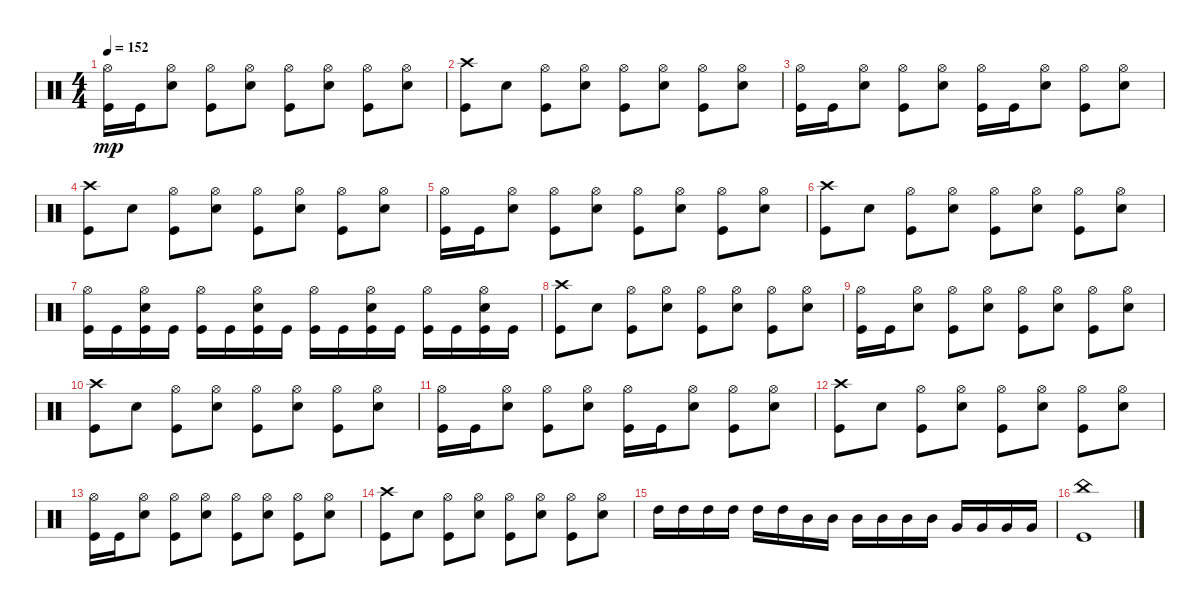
\track "" {instrument percussion}
\staff {score}
\articulation defaults
\ts (4 4)
\tempo 152
\clef neutral
\ks c
("Kick (hit)" "Hi-Hat (open)").16{dy mp} "Kick (hit)".16 ("Snare (hit) 2" "Hi-Hat (open)").8 ("Kick (hit)" "Hi-Hat (open)").8 ("Snare (hit) 2" "Hi-Hat (open)").8 ("Kick (hit)" "Hi-Hat (open)").8 ("Snare (hit) 2" "Hi-Hat (open)").8 ("Kick (hit)" "Hi-Hat (open)").8 ("Snare (hit) 2" "Hi-Hat (open)").8 |
("Kick (hit)" "Crash high (hit)").8 "Snare (hit) 2".8 ("Kick (hit)" "Hi-Hat (open)").8 ("Snare (hit) 2" "Hi-Hat (open)").8 ("Kick (hit)" "Hi-Hat (open)").8 ("Snare (hit) 2" "Hi-Hat (open)").8 ("Kick (hit)" "Hi-Hat (open)").8 ("Snare (hit) 2" "Hi-Hat (open)").8 |
("Kick (hit)" "Hi-Hat (open)").16 "Kick (hit)".16 ("Snare (hit) 2" "Hi-Hat (open)").8 ("Kick (hit)" "Hi-Hat (open)").8 ("Snare (hit) 2" "Hi-Hat (open)").8 ("Kick (hit)" "Hi-Hat (open)").16 "Kick (hit)".16 ("Snare (hit) 2" "Hi-Hat (open)").8 ("Kick (hit)" "Hi-Hat (open)").8 ("Snare (hit) 2" "Hi-Hat (open)").8 |
("Kick (hit)" "Crash high (hit)").8 "Snare (hit) 2".8 ("Kick (hit)" "Hi-Hat (open)").8 ("Snare (hit) 2" "Hi-Hat (open)").8 ("Kick (hit)" "Hi-Hat (open)").8 ("Snare (hit) 2" "Hi-Hat (open)").8 ("Kick (hit)" "Hi-Hat (open)").8 ("Snare (hit) 2" "Hi-Hat (open)").8 |
("Kick (hit)" "Hi-Hat (open)").16 "Kick (hit)".16 ("Snare (hit) 2" "Hi-Hat (open)").8 ("Kick (hit)" "Hi-Hat (open)").8 ("Snare (hit) 2" "Hi-Hat (open)").8 ("Kick (hit)" "Hi-Hat (open)").8 ("Snare (hit) 2" "Hi-Hat (open)").8 ("Kick (hit)" "Hi-Hat (open)").8 ("Snare (hit) 2" "Hi-Hat (open)").8 |
("Kick (hit)" "Crash high (hit)").8 "Snare (hit) 2".8 ("Kick (hit)" "Hi-Hat (open)").8 ("Snare (hit) 2" "Hi-Hat (open)").8 ("Kick (hit)" "Hi-Hat (open)").8 ("Snare (hit) 2" "Hi-Hat (open)").8 ("Kick (hit)" "Hi-Hat (open)").8 ("Snare (hit) 2" "Hi-Hat (open)").8 |
("Kick (hit)" "Hi-Hat (open)").16 "Kick (hit)".16 ("Snare (hit) 2" "Hi-Hat (open)" "Kick (hit)").16 "Kick (hit)".16 ("Kick (hit)" "Hi-Hat (open)").16 "Kick (hit)".16 ("Snare (hit) 2" "Hi-Hat (open)" "Kick (hit)").16 "Kick (hit)".16 ("Kick (hit)" "Hi-Hat (open)").16 "Kick (hit)".16 ("Snare (hit) 2" "Hi-Hat (open)" "Kick (hit)").16 "Kick (hit)".16 ("Kick (hit)" "Hi-Hat (open)").16 "Kick (hit)".16 ("Snare (hit) 2" "Hi-Hat (open)" "Kick (hit)").16 "Kick (hit)".16 |
("Kick (hit)" "Crash high (hit)").8 "Snare (hit) 2".8 ("Kick (hit)" "Hi-Hat (open)").8 ("Snare (hit) 2" "Hi-Hat (open)").8 ("Kick (hit)" "Hi-Hat (open)").8 ("Snare (hit) 2" "Hi-Hat (open)").8 ("Kick (hit)" "Hi-Hat (open)").8 ("Snare (hit) 2" "Hi-Hat (open)").8 |
("Kick (hit)" "Hi-Hat (open)").16 "Kick (hit)".16 ("Snare (hit) 2" "Hi-Hat (open)").8 ("Kick (hit)" "Hi-Hat (open)").8 ("Snare (hit) 2" "Hi-Hat (open)").8 ("Kick (hit)" "Hi-Hat (open)").8 ("Snare (hit) 2" "Hi-Hat (open)").8 ("Kick (hit)" "Hi-Hat (open)").8 ("Snare (hit) 2" "Hi-Hat (open)").8 |
("Kick (hit)" "Crash high (hit)").8 "Snare (hit) 2".8 ("Kick (hit)" "Hi-Hat (open)").8 ("Snare (hit) 2" "Hi-Hat (open)").8 ("Kick (hit)" "Hi-Hat (open)").8 ("Snare (hit) 2" "Hi-Hat (open)").8 ("Kick (hit)" "Hi-Hat (open)").8 ("Snare (hit) 2" "Hi-Hat (open)").8 |
("Kick (hit)" "Hi-Hat (open)").16 "Kick (hit)".16 ("Snare (hit) 2" "Hi-Hat (open)").8 ("Kick (hit)" "Hi-Hat (open)").8 ("Snare (hit) 2" "Hi-Hat (open)").8 ("Kick (hit)" "Hi-Hat (open)").16 "Kick (hit)".16 ("Snare (hit) 2" "Hi-Hat (open)").8 ("Kick (hit)" "Hi-Hat (open)").8 ("Snare (hit) 2" "Hi-Hat (open)").8 |
("Kick (hit)" "Crash high (hit)").8 "Snare (hit) 2".8 ("Kick (hit)" "Hi-Hat (open)").8 ("Snare (hit) 2" "Hi-Hat (open)").8 ("Kick (hit)" "Hi-Hat (open)").8 ("Snare (hit) 2" "Hi-Hat (open)").8 ("Kick (hit)" "Hi-Hat (open)").8 ("Snare (hit) 2" "Hi-Hat (open)").8 |
("Kick (hit)" "Hi-Hat (open)").16 "Kick (hit)".16 ("Snare (hit) 2" "Hi-Hat (open)").8 ("Kick (hit)" "Hi-Hat (open)").8 ("Snare (hit) 2" "Hi-Hat (open)").8 ("Kick (hit)" "Hi-Hat (open)").8 ("Snare (hit) 2" "Hi-Hat (open)").8 ("Kick (hit)" "Hi-Hat (open)").8 ("Snare (hit) 2" "Hi-Hat (open)").8 |
("Kick (hit)" "Crash high (hit)").8 "Snare (hit) 2".8 ("Kick (hit)" "Hi-Hat (open)").8 ("Snare (hit) 2" "Hi-Hat (open)").8 ("Kick (hit)" "Hi-Hat (open)").8 ("Snare (hit) 2" "Hi-Hat (open)").8 ("Kick (hit)" "Hi-Hat (open)").8 ("Snare (hit) 2" "Hi-Hat (open)").8 |
"High Tom (hit)".16 "High Tom (hit)".16 "High Tom (hit)".16 "High Tom (hit)".16 "High Tom (hit)".16 "High Tom (hit)".16 "Mid Tom (hit)".16 "Mid Tom (hit)".16 "Mid Tom (hit)".16 "Mid Tom (hit)".16 "Mid Tom (hit)".16 "Mid Tom (hit)".16 "Very Low Tom (hit)".16 "Very Low Tom (hit)".16 "Very Low Tom (hit)".16 "Very Low Tom (hit)".16 |
("Kick (hit)" "China (hit)").1
